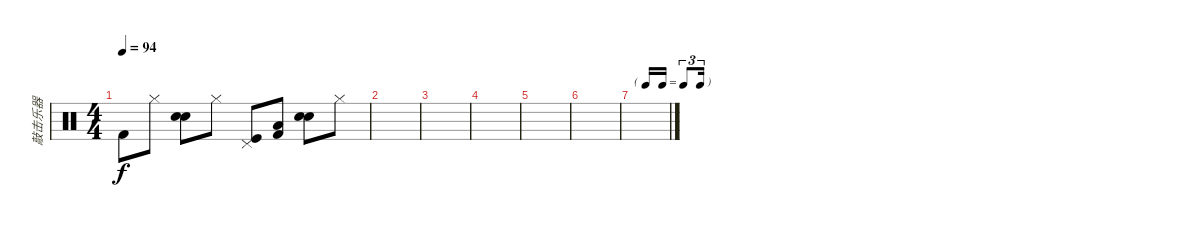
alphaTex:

\track ("敲击乐器" "敲击乐器") {instrument percussion}
\staff {score}
\articulation defaults
\ts (4 4)
\tempo 94
\clef neutral
\ks c "Kick (hit) 2".8{dy f} "Hi-Hat (closed)".8
("Snare (hit) 2" "Hand Clap (hit)").8 "Hi-Hat (closed)".8 ("Pedal Hi-Hat (hit)" "Kick (hit)").8 ("Kick (hit) 2" "Low Tom (hit)").8 ("Snare (hit) 2" "Electric Snare (hit)").8 "Hi-Hat (closed)".8 |
|
|
|
|
|
\tf triplet16th
